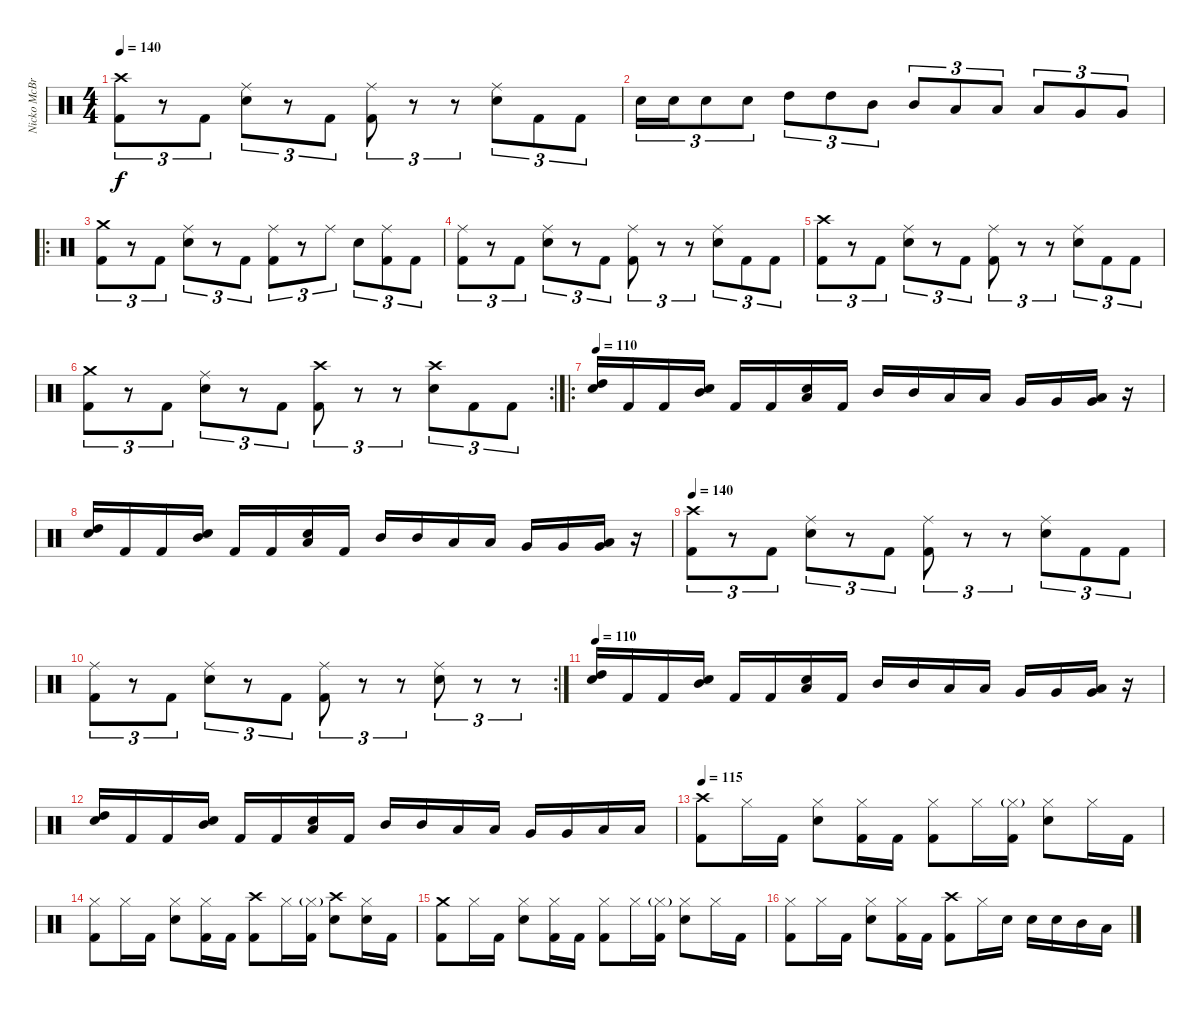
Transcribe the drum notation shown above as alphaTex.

\track ("Nicko McBrain" "Nicko McBr") {instrument percussion}
\staff {score}
\articulation defaults
\ts (4 4)
\tempo 140
\clef neutral
\ks c
("Crash high (hit)" "Kick (hit) 2").8{tu (3 2) dy f} r.8{tu (3 2)} "Kick (hit) 2".8{tu (3 2)} ("Ride (middle)" "Electric Snare (hit)").8{tu (3 2)} r.8{tu (3 2)} "Kick (hit) 2".8{tu (3 2)} ("Ride (middle)" "Kick (hit) 2").8{tu (3 2)} r.8{tu (3 2)} r.8{tu (3 2)} ("Ride (middle)" "Electric Snare (hit)").8{tu (3 2)} "Kick (hit) 2".8{tu (3 2)} "Kick (hit) 2".8{tu (3 2)} |
"Electric Snare (hit)".16{tu (3 2)} "Electric Snare (hit)".16{tu (3 2)} "Electric Snare (hit)".8{tu (3 2)} "Electric Snare (hit)".8{tu (3 2)} "High Tom (hit)".8{tu (3 2)} "High Tom (hit)".8{tu (3 2)} "Mid Tom (hit)".8{tu (3 2)} "Mid Tom (hit)".8{tu (3 2)} "Low Tom (hit)".8{tu (3 2)} "Low Tom (hit)".8{tu (3 2)} "Low Tom (hit)".8{tu (3 2)} "Very Low Tom (hit)".8{tu (3 2)} "Very Low Tom (hit)".8{tu (3 2)} |
\ro
("Crash medium (hit)" "Kick (hit) 2").8{tu (3 2)} r.8{tu (3 2)} "Kick (hit) 2".8{tu (3 2)} ("Ride (middle)" "Electric Snare (hit)").8{tu (3 2)} r.8{tu (3 2)} "Kick (hit) 2".8{tu (3 2)} ("Ride (middle)" "Kick (hit) 2").8{tu (3 2)} r.8{tu (3 2)} "Ride (middle)".8{tu (3 2)} "Electric Snare (hit)".8{tu (3 2)} ("Ride (middle)" "Kick (hit) 2").8{tu (3 2)} "Kick (hit) 2".8{tu (3 2)} |
("Ride (middle)" "Kick (hit) 2").8{tu (3 2)} r.8{tu (3 2)} "Kick (hit) 2".8{tu (3 2)} ("Ride (middle)" "Electric Snare (hit)").8{tu (3 2)} r.8{tu (3 2)} "Kick (hit) 2".8{tu (3 2)} ("Ride (middle)" "Kick (hit) 2").8{tu (3 2)} r.8{tu (3 2)} r.8{tu (3 2)} ("Ride (middle)" "Electric Snare (hit)").8{tu (3 2)} "Kick (hit) 2".8{tu (3 2)} "Kick (hit) 2".8{tu (3 2)} |
("Crash high (hit)" "Kick (hit) 2").8{tu (3 2)} r.8{tu (3 2)} "Kick (hit) 2".8{tu (3 2)} ("Ride (middle)" "Electric Snare (hit)").8{tu (3 2)} r.8{tu (3 2)} "Kick (hit) 2".8{tu (3 2)} ("Ride (middle)" "Kick (hit) 2").8{tu (3 2)} r.8{tu (3 2)} r.8{tu (3 2)} ("Ride (middle)" "Electric Snare (hit)").8{tu (3 2)} "Kick (hit) 2".8{tu (3 2)} "Kick (hit) 2".8{tu (3 2)} |
\rc 2
("Crash medium (hit)" "Kick (hit) 2").8{tu (3 2)} r.8{tu (3 2)} "Kick (hit) 2".8{tu (3 2)} ("Ride (middle)" "Electric Snare (hit)").8{tu (3 2)} r.8{tu (3 2)} "Kick (hit) 2".8{tu (3 2)} ("Crash high (hit)" "Kick (hit) 2").8{tu (3 2)} r.8{tu (3 2)} r.8{tu (3 2)} ("Crash high (hit)" "Electric Snare (hit)").8{tu (3 2)} "Kick (hit) 2".8{tu (3 2)} "Kick (hit) 2".8{tu (3 2)} |
\ro
\tempo 110
("High Tom (hit)" "Electric Snare (hit)").16 "Kick (hit) 2".16 "Kick (hit) 2".16 ("Mid Tom (hit)" "Electric Snare (hit)").16 "Kick (hit) 2".16 "Kick (hit) 2".16 ("Low Tom (hit)" "Electric Snare (hit)").16 "Kick (hit) 2".16 "Mid Tom (hit)".16 "Mid Tom (hit)".16 "Low Tom (hit)".16 "Low Tom (hit)".16 "Very Low Tom (hit)".16 "Very Low Tom (hit)".16 ("Low Tom (hit)" "Very Low Tom (hit)").16 r.16 |
("High Tom (hit)" "Electric Snare (hit)").16 "Kick (hit) 2".16 "Kick (hit) 2".16 ("Mid Tom (hit)" "Electric Snare (hit)").16 "Kick (hit) 2".16 "Kick (hit) 2".16 ("Low Tom (hit)" "Electric Snare (hit)").16 "Kick (hit) 2".16 "Mid Tom (hit)".16 "Mid Tom (hit)".16 "Low Tom (hit)".16 "Low Tom (hit)".16 "Very Low Tom (hit)".16 "Very Low Tom (hit)".16 ("Low Tom (hit)" "Very Low Tom (hit)").16 r.16 |
\tempo 140
("Crash high (hit)" "Kick (hit) 2").8{tu (3 2)} r.8{tu (3 2)} "Kick (hit) 2".8{tu (3 2)} ("Ride (middle)" "Electric Snare (hit)").8{tu (3 2)} r.8{tu (3 2)} "Kick (hit) 2".8{tu (3 2)} ("Ride (middle)" "Kick (hit) 2").8{tu (3 2)} r.8{tu (3 2)} r.8{tu (3 2)} ("Ride (middle)" "Electric Snare (hit)").8{tu (3 2)} "Kick (hit) 2".8{tu (3 2)} "Kick (hit) 2".8{tu (3 2)} |
\rc 2
("Ride (middle)" "Kick (hit) 2").8{tu (3 2)} r.8{tu (3 2)} "Kick (hit) 2".8{tu (3 2)} ("Ride (middle)" "Electric Snare (hit)").8{tu (3 2)} r.8{tu (3 2)} "Kick (hit) 2".8{tu (3 2)} ("Ride (middle)" "Kick (hit) 2").8{tu (3 2)} r.8{tu (3 2)} r.8{tu (3 2)} ("Ride (middle)" "Electric Snare (hit)").8{tu (3 2)} r.8{tu (3 2)} r.8{tu (3 2)} |
\tempo 110
("High Tom (hit)" "Electric Snare (hit)").16 "Kick (hit) 2".16 "Kick (hit) 2".16 ("Mid Tom (hit)" "Electric Snare (hit)").16 "Kick (hit) 2".16 "Kick (hit) 2".16 ("Low Tom (hit)" "Electric Snare (hit)").16 "Kick (hit) 2".16 "Mid Tom (hit)".16 "Mid Tom (hit)".16 "Low Tom (hit)".16 "Low Tom (hit)".16 "Very Low Tom (hit)".16 "Very Low Tom (hit)".16 ("Very Low Tom (hit)" "Low Tom (hit)").16 r.16 |
("High Tom (hit)" "Electric Snare (hit)").16 "Kick (hit) 2".16 "Kick (hit) 2".16 ("Mid Tom (hit)" "Electric Snare (hit)").16 "Kick (hit) 2".16 "Kick (hit) 2".16 ("Low Tom (hit)" "Electric Snare (hit)").16 "Kick (hit) 2".16 "Mid Tom (hit)".16 "Mid Tom (hit)".16 "Low Tom (hit)".16 "Low Tom (hit)".16 "Very Low Tom (hit)".16 "Very Low Tom (hit)".16 "Low Floor Tom (hit)".16 "Low Floor Tom (hit)".16 |
\tempo 115
("Crash high (hit)" "Kick (hit) 2").8 "Hi-Hat (closed)".16 "Kick (hit) 2".16 ("Hi-Hat (closed)" "Electric Snare (hit)").8 ("Hi-Hat (closed)" "Kick (hit) 2").16 "Kick (hit) 2".16 ("Hi-Hat (closed)" "Kick (hit) 2").8 "Hi-Hat (closed)".16 ("Hi-Hat (closed)"{g} "Kick (hit) 2").16 ("Hi-Hat (closed)" "Electric Snare (hit)").8 "Hi-Hat (closed)".16 "Kick (hit) 2".16 |
("Hi-Hat (closed)" "Kick (hit) 2").8 "Hi-Hat (closed)".16 "Kick (hit) 2".16 ("Hi-Hat (closed)" "Electric Snare (hit)").8 ("Hi-Hat (closed)" "Kick (hit) 2").16 "Kick (hit) 2".16 ("Crash high (hit)" "Kick (hit) 2").8 "Hi-Hat (closed)".16 ("Hi-Hat (closed)"{g} "Kick (hit) 2").16 ("Crash high (hit)" "Electric Snare (hit)").8 ("Hi-Hat (closed)" "Electric Snare (hit)").16 "Kick (hit) 2".16 |
("Crash medium (hit)" "Kick (hit) 2").8 "Hi-Hat (closed)".16 "Kick (hit) 2".16 ("Hi-Hat (closed)" "Electric Snare (hit)").8 ("Hi-Hat (closed)" "Kick (hit) 2").16 "Kick (hit) 2".16 ("Hi-Hat (closed)" "Kick (hit) 2").8 "Hi-Hat (closed)".16 ("Hi-Hat (closed)"{g} "Kick (hit) 2").16 ("Hi-Hat (closed)" "Electric Snare (hit)").8 "Hi-Hat (closed)".16 "Kick (hit) 2".16 |
("Hi-Hat (closed)" "Kick (hit) 2").8 "Hi-Hat (closed)".16 "Kick (hit) 2".16 ("Hi-Hat (closed)" "Electric Snare (hit)").8 ("Hi-Hat (closed)" "Kick (hit) 2").16 "Kick (hit) 2".16 ("Crash high (hit)" "Kick (hit) 2").8 "Hi-Hat (closed)".16 "Electric Snare (hit)".16 "Electric Snare (hit)".16 "Electric Snare (hit)".16 "Mid Tom (hit)".16 "Low Tom (hit)".16
